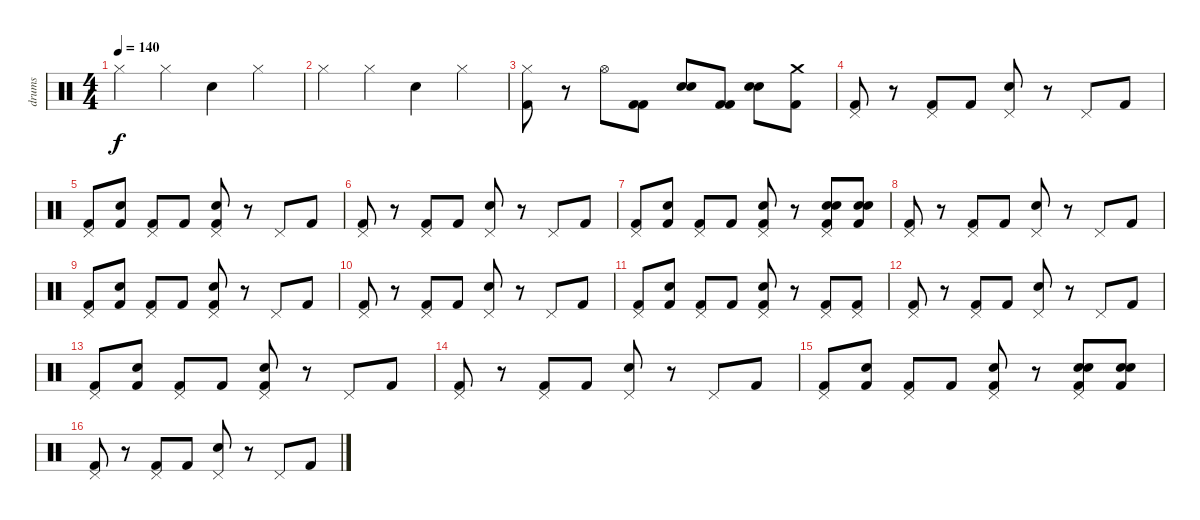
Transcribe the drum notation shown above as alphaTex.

\track ("drums" "drums") {instrument percussion}
\staff {score}
\articulation defaults
\ts (4 4)
\tempo 140
\clef neutral
\ks c "Hi-Hat (closed)".4{dy f} "Hi-Hat (closed)".4 "Snare (hit) 2".4 "Hi-Hat (closed)".4
|
"Hi-Hat (closed)".4 "Hi-Hat (closed)".4 "Snare (hit) 2".4 "Hi-Hat (closed)".4 |
("Hi-Hat (closed)" "Kick (hit) 2").8 r.8 "Hi-Hat (open)".8 ("Kick (hit) 2" "Kick (hit) 2").8 ("Snare (hit) 2" "Snare (hit) 2").8 ("Kick (hit) 2" "Kick (hit) 2").8 ("Snare (hit) 2" "Snare (hit) 2").8 ("Kick (hit) 2" "Crash medium (hit)").8 |
("Pedal Hi-Hat (hit)" "Kick (hit) 2").8 r.8 ("Pedal Hi-Hat (hit)" "Kick (hit) 2").8 "Kick (hit) 2".8 ("Pedal Hi-Hat (hit)" "Snare (hit) 2").8 r.8 "Pedal Hi-Hat (hit)".8 "Kick (hit) 2".8 |
("Kick (hit) 2" "Pedal Hi-Hat (hit)").8 ("Snare (hit) 2" "Kick (hit) 2").8 ("Kick (hit) 2" "Pedal Hi-Hat (hit)").8 "Kick (hit) 2".8 ("Snare (hit) 2" "Kick (hit) 2" "Pedal Hi-Hat (hit)").8 r.8 "Pedal Hi-Hat (hit)".8 "Kick (hit) 2".8 |
("Pedal Hi-Hat (hit)" "Kick (hit) 2").8 r.8 ("Pedal Hi-Hat (hit)" "Kick (hit) 2").8 "Kick (hit) 2".8 ("Pedal Hi-Hat (hit)" "Snare (hit) 2").8 r.8 "Pedal Hi-Hat (hit)".8 "Kick (hit) 2".8 |
("Kick (hit) 2" "Pedal Hi-Hat (hit)").8 ("Snare (hit) 2" "Kick (hit) 2").8 ("Kick (hit) 2" "Pedal Hi-Hat (hit)").8 "Kick (hit) 2".8 ("Snare (hit) 2" "Kick (hit) 2" "Pedal Hi-Hat (hit)").8 r.8 ("Kick (hit) 2" "Snare (hit) 2" "Snare (hit) 2" "Pedal Hi-Hat (hit)").8 ("Kick (hit) 2" "Snare (hit) 2" "Snare (hit) 2").8 |
("Pedal Hi-Hat (hit)" "Kick (hit) 2").8 r.8 ("Pedal Hi-Hat (hit)" "Kick (hit) 2").8 "Kick (hit) 2".8 ("Pedal Hi-Hat (hit)" "Snare (hit) 2").8 r.8 "Pedal Hi-Hat (hit)".8 "Kick (hit) 2".8 |
("Kick (hit) 2" "Pedal Hi-Hat (hit)").8 ("Snare (hit) 2" "Kick (hit) 2").8 ("Kick (hit) 2" "Pedal Hi-Hat (hit)").8 "Kick (hit) 2".8 ("Snare (hit) 2" "Kick (hit) 2" "Pedal Hi-Hat (hit)").8 r.8 "Pedal Hi-Hat (hit)".8 "Kick (hit) 2".8 |
("Pedal Hi-Hat (hit)" "Kick (hit) 2").8 r.8 ("Pedal Hi-Hat (hit)" "Kick (hit) 2").8 "Kick (hit) 2".8 ("Pedal Hi-Hat (hit)" "Snare (hit) 2").8 r.8 "Pedal Hi-Hat (hit)".8 "Kick (hit) 2".8 |
("Kick (hit) 2" "Pedal Hi-Hat (hit)").8 ("Snare (hit) 2" "Kick (hit) 2").8 ("Kick (hit) 2" "Pedal Hi-Hat (hit)").8 "Kick (hit) 2".8 ("Snare (hit) 2" "Kick (hit) 2" "Pedal Hi-Hat (hit)").8 r.8 ("Kick (hit) 2" "Pedal Hi-Hat (hit)").8 ("Kick (hit) 2" "Pedal Hi-Hat (hit)").8 |
("Pedal Hi-Hat (hit)" "Kick (hit) 2").8 r.8 ("Pedal Hi-Hat (hit)" "Kick (hit) 2").8 "Kick (hit) 2".8 ("Pedal Hi-Hat (hit)" "Snare (hit) 2").8 r.8 "Pedal Hi-Hat (hit)".8 "Kick (hit) 2".8 |
("Kick (hit) 2" "Pedal Hi-Hat (hit)").8 ("Snare (hit) 2" "Kick (hit) 2").8 ("Kick (hit) 2" "Pedal Hi-Hat (hit)").8 "Kick (hit) 2".8 ("Snare (hit) 2" "Kick (hit) 2" "Pedal Hi-Hat (hit)").8 r.8 "Pedal Hi-Hat (hit)".8 "Kick (hit) 2".8 |
("Pedal Hi-Hat (hit)" "Kick (hit) 2").8 r.8 ("Pedal Hi-Hat (hit)" "Kick (hit) 2").8 "Kick (hit) 2".8 ("Pedal Hi-Hat (hit)" "Snare (hit) 2").8 r.8 "Pedal Hi-Hat (hit)".8 "Kick (hit) 2".8 |
("Kick (hit) 2" "Pedal Hi-Hat (hit)").8 ("Snare (hit) 2" "Kick (hit) 2").8 ("Kick (hit) 2" "Pedal Hi-Hat (hit)").8 "Kick (hit) 2".8 ("Snare (hit) 2" "Kick (hit) 2" "Pedal Hi-Hat (hit)").8 r.8 ("Kick (hit) 2" "Snare (hit) 2" "Snare (hit) 2" "Pedal Hi-Hat (hit)").8 ("Kick (hit) 2" "Snare (hit) 2" "Snare (hit) 2").8 |
("Pedal Hi-Hat (hit)" "Kick (hit) 2").8 r.8 ("Pedal Hi-Hat (hit)" "Kick (hit) 2").8 "Kick (hit) 2".8 ("Pedal Hi-Hat (hit)" "Snare (hit) 2").8 r.8 "Pedal Hi-Hat (hit)".8 "Kick (hit) 2".8
